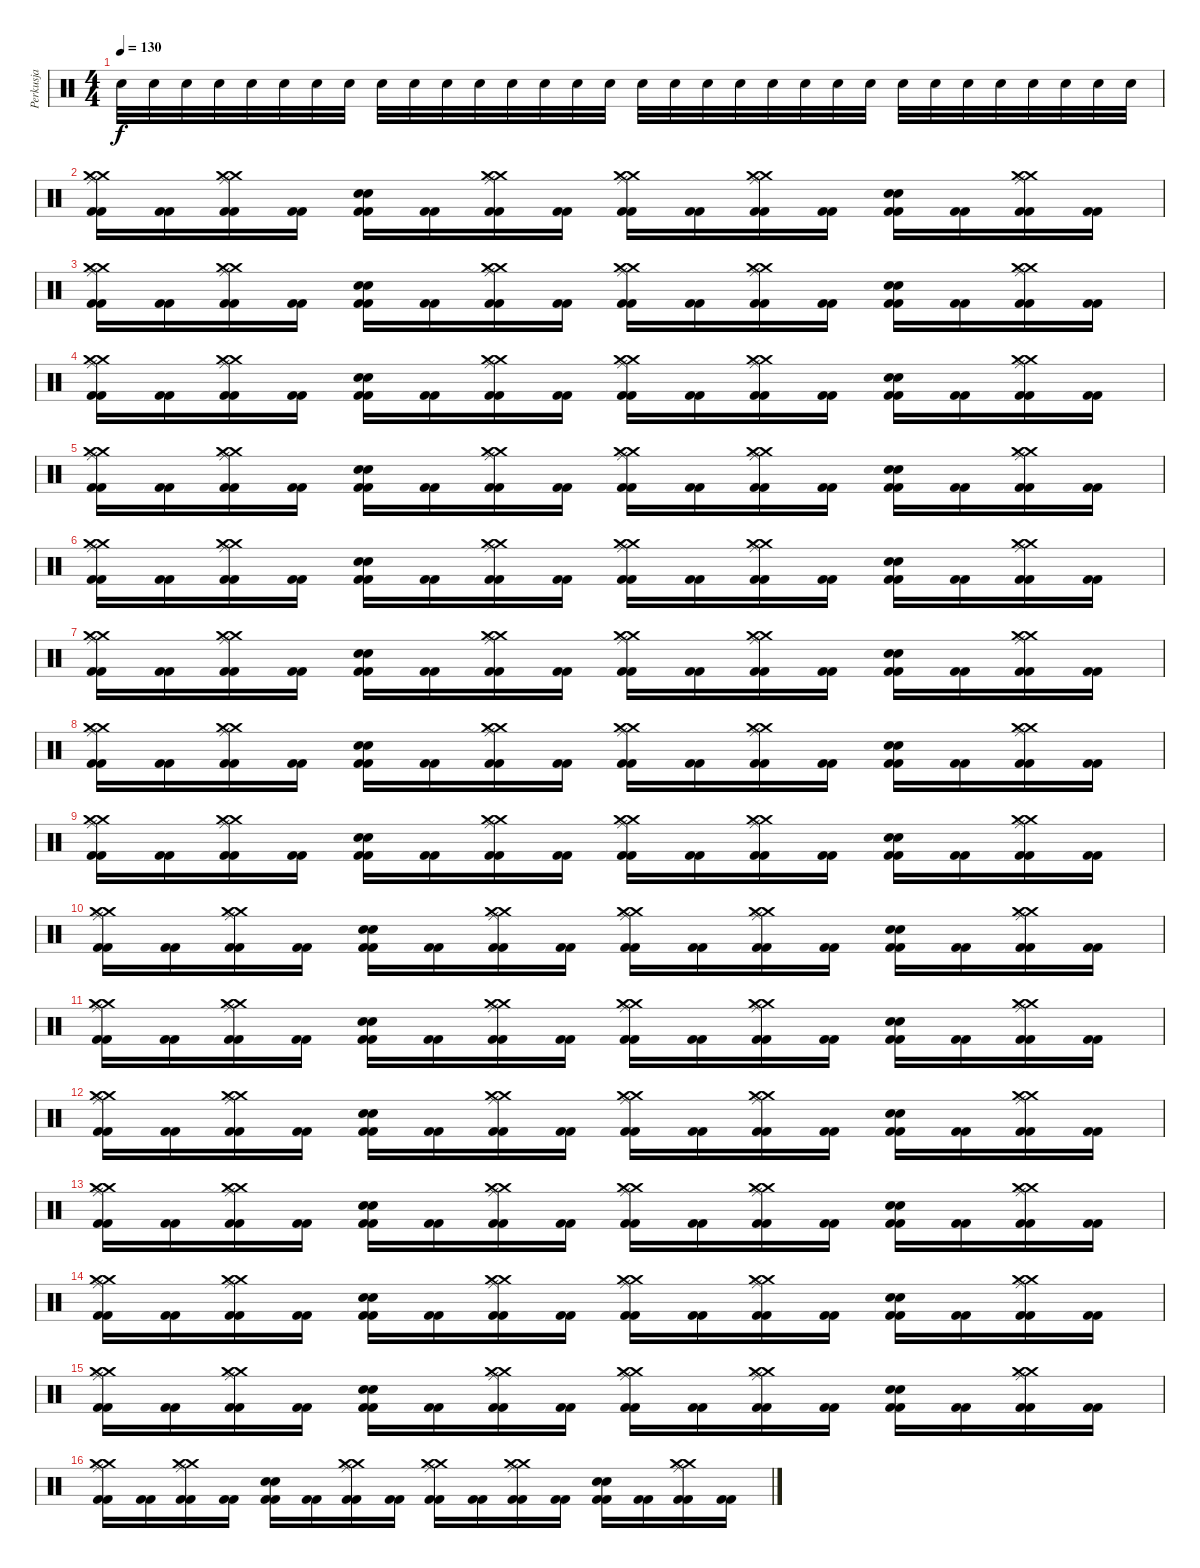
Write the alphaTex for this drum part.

\track ("Perkusja" "Perkusja") {instrument percussion}
\staff {score}
\articulation defaults
\ts (4 4)
\tempo 130
\clef neutral
\ks c "Electric Snare (hit)".32{dy f} "Electric Snare (hit)".32 "Electric Snare (hit)".32 "Electric Snare (hit)".32 "Electric Snare (hit)".32 "Electric Snare (hit)".32 "Electric Snare (hit)".32 "Electric Snare (hit)".32 "Electric Snare (hit)".32 "Electric Snare (hit)".32 "Electric Snare (hit)".32 "Electric Snare (hit)".32 "Electric Snare (hit)".32 "Electric Snare (hit)".32 "Electric Snare (hit)".32 "Electric Snare (hit)".32 "Electric Snare (hit)".32 "Electric Snare (hit)".32 "Electric Snare (hit)".32 "Electric Snare (hit)".32 "Electric Snare (hit)".32 "Electric Snare (hit)".32 "Electric Snare (hit)".32 "Electric Snare (hit)".32 "Electric Snare (hit)".32 "Electric Snare (hit)".32 "Electric Snare (hit)".32 "Electric Snare (hit)".32 "Electric Snare (hit)".32 "Electric Snare (hit)".32 "Electric Snare (hit)".32 "Electric Snare (hit)".32
|
("Ride (middle)" "Crash medium (hit)" "Crash medium (hit)" "Kick (hit) 2" "Kick (hit) 2").16 ("Kick (hit) 2" "Kick (hit) 2").16 ("Ride (middle)" "Crash medium (hit)" "Crash medium (hit)" "Kick (hit) 2" "Kick (hit) 2").16 ("Kick (hit) 2" "Kick (hit) 2").16 ("Electric Snare (hit)" "Electric Snare (hit)" "Kick (hit) 2" "Kick (hit) 2").16 ("Kick (hit) 2" "Kick (hit) 2").16 ("Ride (middle)" "Crash medium (hit)" "Crash medium (hit)" "Kick (hit) 2" "Kick (hit) 2").16 ("Kick (hit) 2" "Kick (hit) 2").16 ("Ride (middle)" "Crash medium (hit)" "Crash medium (hit)" "Kick (hit) 2" "Kick (hit) 2").16 ("Kick (hit) 2" "Kick (hit) 2").16 ("Ride (middle)" "Crash medium (hit)" "Crash medium (hit)" "Kick (hit) 2" "Kick (hit) 2").16 ("Kick (hit) 2" "Kick (hit) 2").16 ("Electric Snare (hit)" "Electric Snare (hit)" "Kick (hit) 2" "Kick (hit) 2").16 ("Kick (hit) 2" "Kick (hit) 2").16 ("Ride (middle)" "Crash medium (hit)" "Crash medium (hit)" "Kick (hit) 2" "Kick (hit) 2").16 ("Kick (hit) 2" "Kick (hit) 2").16 |
("Ride (middle)" "Crash medium (hit)" "Crash medium (hit)" "Kick (hit) 2" "Kick (hit) 2").16 ("Kick (hit) 2" "Kick (hit) 2").16 ("Ride (middle)" "Crash medium (hit)" "Crash medium (hit)" "Kick (hit) 2" "Kick (hit) 2").16 ("Kick (hit) 2" "Kick (hit) 2").16 ("Electric Snare (hit)" "Electric Snare (hit)" "Kick (hit) 2" "Kick (hit) 2").16 ("Kick (hit) 2" "Kick (hit) 2").16 ("Ride (middle)" "Crash medium (hit)" "Crash medium (hit)" "Kick (hit) 2" "Kick (hit) 2").16 ("Kick (hit) 2" "Kick (hit) 2").16 ("Ride (middle)" "Crash medium (hit)" "Crash medium (hit)" "Kick (hit) 2" "Kick (hit) 2").16 ("Kick (hit) 2" "Kick (hit) 2").16 ("Ride (middle)" "Crash medium (hit)" "Crash medium (hit)" "Kick (hit) 2" "Kick (hit) 2").16 ("Kick (hit) 2" "Kick (hit) 2").16 ("Electric Snare (hit)" "Electric Snare (hit)" "Kick (hit) 2" "Kick (hit) 2").16 ("Kick (hit) 2" "Kick (hit) 2").16 ("Ride (middle)" "Crash medium (hit)" "Crash medium (hit)" "Kick (hit) 2" "Kick (hit) 2").16 ("Kick (hit) 2" "Kick (hit) 2").16 |
("Ride (middle)" "Crash medium (hit)" "Crash medium (hit)" "Kick (hit) 2" "Kick (hit) 2").16 ("Kick (hit) 2" "Kick (hit) 2").16 ("Ride (middle)" "Crash medium (hit)" "Crash medium (hit)" "Kick (hit) 2" "Kick (hit) 2").16 ("Kick (hit) 2" "Kick (hit) 2").16 ("Electric Snare (hit)" "Electric Snare (hit)" "Kick (hit) 2" "Kick (hit) 2").16 ("Kick (hit) 2" "Kick (hit) 2").16 ("Ride (middle)" "Crash medium (hit)" "Crash medium (hit)" "Kick (hit) 2" "Kick (hit) 2").16 ("Kick (hit) 2" "Kick (hit) 2").16 ("Ride (middle)" "Crash medium (hit)" "Crash medium (hit)" "Kick (hit) 2" "Kick (hit) 2").16 ("Kick (hit) 2" "Kick (hit) 2").16 ("Ride (middle)" "Crash medium (hit)" "Crash medium (hit)" "Kick (hit) 2" "Kick (hit) 2").16 ("Kick (hit) 2" "Kick (hit) 2").16 ("Electric Snare (hit)" "Electric Snare (hit)" "Kick (hit) 2" "Kick (hit) 2").16 ("Kick (hit) 2" "Kick (hit) 2").16 ("Ride (middle)" "Crash medium (hit)" "Crash medium (hit)" "Kick (hit) 2" "Kick (hit) 2").16 ("Kick (hit) 2" "Kick (hit) 2").16 |
("Ride (middle)" "Crash medium (hit)" "Crash medium (hit)" "Kick (hit) 2" "Kick (hit) 2").16 ("Kick (hit) 2" "Kick (hit) 2").16 ("Ride (middle)" "Crash medium (hit)" "Crash medium (hit)" "Kick (hit) 2" "Kick (hit) 2").16 ("Kick (hit) 2" "Kick (hit) 2").16 ("Electric Snare (hit)" "Electric Snare (hit)" "Kick (hit) 2" "Kick (hit) 2").16 ("Kick (hit) 2" "Kick (hit) 2").16 ("Ride (middle)" "Crash medium (hit)" "Crash medium (hit)" "Kick (hit) 2" "Kick (hit) 2").16 ("Kick (hit) 2" "Kick (hit) 2").16 ("Ride (middle)" "Crash medium (hit)" "Crash medium (hit)" "Kick (hit) 2" "Kick (hit) 2").16 ("Kick (hit) 2" "Kick (hit) 2").16 ("Ride (middle)" "Crash medium (hit)" "Crash medium (hit)" "Kick (hit) 2" "Kick (hit) 2").16 ("Kick (hit) 2" "Kick (hit) 2").16 ("Electric Snare (hit)" "Electric Snare (hit)" "Kick (hit) 2" "Kick (hit) 2").16 ("Kick (hit) 2" "Kick (hit) 2").16 ("Ride (middle)" "Crash medium (hit)" "Crash medium (hit)" "Kick (hit) 2" "Kick (hit) 2").16 ("Kick (hit) 2" "Kick (hit) 2").16 |
("Ride (middle)" "Crash medium (hit)" "Crash medium (hit)" "Kick (hit) 2" "Kick (hit) 2").16 ("Kick (hit) 2" "Kick (hit) 2").16 ("Ride (middle)" "Crash medium (hit)" "Crash medium (hit)" "Kick (hit) 2" "Kick (hit) 2").16 ("Kick (hit) 2" "Kick (hit) 2").16 ("Electric Snare (hit)" "Electric Snare (hit)" "Kick (hit) 2" "Kick (hit) 2").16 ("Kick (hit) 2" "Kick (hit) 2").16 ("Ride (middle)" "Crash medium (hit)" "Crash medium (hit)" "Kick (hit) 2" "Kick (hit) 2").16 ("Kick (hit) 2" "Kick (hit) 2").16 ("Ride (middle)" "Crash medium (hit)" "Crash medium (hit)" "Kick (hit) 2" "Kick (hit) 2").16 ("Kick (hit) 2" "Kick (hit) 2").16 ("Ride (middle)" "Crash medium (hit)" "Crash medium (hit)" "Kick (hit) 2" "Kick (hit) 2").16 ("Kick (hit) 2" "Kick (hit) 2").16 ("Electric Snare (hit)" "Electric Snare (hit)" "Kick (hit) 2" "Kick (hit) 2").16 ("Kick (hit) 2" "Kick (hit) 2").16 ("Ride (middle)" "Crash medium (hit)" "Crash medium (hit)" "Kick (hit) 2" "Kick (hit) 2").16 ("Kick (hit) 2" "Kick (hit) 2").16 |
("Ride (middle)" "Crash medium (hit)" "Crash medium (hit)" "Kick (hit) 2" "Kick (hit) 2").16 ("Kick (hit) 2" "Kick (hit) 2").16 ("Ride (middle)" "Crash medium (hit)" "Crash medium (hit)" "Kick (hit) 2" "Kick (hit) 2").16 ("Kick (hit) 2" "Kick (hit) 2").16 ("Electric Snare (hit)" "Electric Snare (hit)" "Kick (hit) 2" "Kick (hit) 2").16 ("Kick (hit) 2" "Kick (hit) 2").16 ("Ride (middle)" "Crash medium (hit)" "Crash medium (hit)" "Kick (hit) 2" "Kick (hit) 2").16 ("Kick (hit) 2" "Kick (hit) 2").16 ("Ride (middle)" "Crash medium (hit)" "Crash medium (hit)" "Kick (hit) 2" "Kick (hit) 2").16 ("Kick (hit) 2" "Kick (hit) 2").16 ("Ride (middle)" "Crash medium (hit)" "Crash medium (hit)" "Kick (hit) 2" "Kick (hit) 2").16 ("Kick (hit) 2" "Kick (hit) 2").16 ("Electric Snare (hit)" "Electric Snare (hit)" "Kick (hit) 2" "Kick (hit) 2").16 ("Kick (hit) 2" "Kick (hit) 2").16 ("Ride (middle)" "Crash medium (hit)" "Crash medium (hit)" "Kick (hit) 2" "Kick (hit) 2").16 ("Kick (hit) 2" "Kick (hit) 2").16 |
("Ride (middle)" "Crash medium (hit)" "Crash medium (hit)" "Kick (hit) 2" "Kick (hit) 2").16 ("Kick (hit) 2" "Kick (hit) 2").16 ("Ride (middle)" "Crash medium (hit)" "Crash medium (hit)" "Kick (hit) 2" "Kick (hit) 2").16 ("Kick (hit) 2" "Kick (hit) 2").16 ("Electric Snare (hit)" "Electric Snare (hit)" "Kick (hit) 2" "Kick (hit) 2").16 ("Kick (hit) 2" "Kick (hit) 2").16 ("Ride (middle)" "Crash medium (hit)" "Crash medium (hit)" "Kick (hit) 2" "Kick (hit) 2").16 ("Kick (hit) 2" "Kick (hit) 2").16 ("Ride (middle)" "Crash medium (hit)" "Crash medium (hit)" "Kick (hit) 2" "Kick (hit) 2").16 ("Kick (hit) 2" "Kick (hit) 2").16 ("Ride (middle)" "Crash medium (hit)" "Crash medium (hit)" "Kick (hit) 2" "Kick (hit) 2").16 ("Kick (hit) 2" "Kick (hit) 2").16 ("Electric Snare (hit)" "Electric Snare (hit)" "Kick (hit) 2" "Kick (hit) 2").16 ("Kick (hit) 2" "Kick (hit) 2").16 ("Ride (middle)" "Crash medium (hit)" "Crash medium (hit)" "Kick (hit) 2" "Kick (hit) 2").16 ("Kick (hit) 2" "Kick (hit) 2").16 |
("Ride (middle)" "Crash medium (hit)" "Crash medium (hit)" "Kick (hit) 2" "Kick (hit) 2").16 ("Kick (hit) 2" "Kick (hit) 2").16 ("Ride (middle)" "Crash medium (hit)" "Crash medium (hit)" "Kick (hit) 2" "Kick (hit) 2").16 ("Kick (hit) 2" "Kick (hit) 2").16 ("Electric Snare (hit)" "Electric Snare (hit)" "Kick (hit) 2" "Kick (hit) 2").16 ("Kick (hit) 2" "Kick (hit) 2").16 ("Ride (middle)" "Crash medium (hit)" "Crash medium (hit)" "Kick (hit) 2" "Kick (hit) 2").16 ("Kick (hit) 2" "Kick (hit) 2").16 ("Ride (middle)" "Crash medium (hit)" "Crash medium (hit)" "Kick (hit) 2" "Kick (hit) 2").16 ("Kick (hit) 2" "Kick (hit) 2").16 ("Ride (middle)" "Crash medium (hit)" "Crash medium (hit)" "Kick (hit) 2" "Kick (hit) 2").16 ("Kick (hit) 2" "Kick (hit) 2").16 ("Electric Snare (hit)" "Electric Snare (hit)" "Kick (hit) 2" "Kick (hit) 2").16 ("Kick (hit) 2" "Kick (hit) 2").16 ("Ride (middle)" "Crash medium (hit)" "Crash medium (hit)" "Kick (hit) 2" "Kick (hit) 2").16 ("Kick (hit) 2" "Kick (hit) 2").16 |
("Ride (middle)" "Crash medium (hit)" "Crash medium (hit)" "Kick (hit) 2" "Kick (hit) 2").16 ("Kick (hit) 2" "Kick (hit) 2").16 ("Ride (middle)" "Crash medium (hit)" "Crash medium (hit)" "Kick (hit) 2" "Kick (hit) 2").16 ("Kick (hit) 2" "Kick (hit) 2").16 ("Electric Snare (hit)" "Electric Snare (hit)" "Kick (hit) 2" "Kick (hit) 2").16 ("Kick (hit) 2" "Kick (hit) 2").16 ("Ride (middle)" "Crash medium (hit)" "Crash medium (hit)" "Kick (hit) 2" "Kick (hit) 2").16 ("Kick (hit) 2" "Kick (hit) 2").16 ("Ride (middle)" "Crash medium (hit)" "Crash medium (hit)" "Kick (hit) 2" "Kick (hit) 2").16 ("Kick (hit) 2" "Kick (hit) 2").16 ("Ride (middle)" "Crash medium (hit)" "Crash medium (hit)" "Kick (hit) 2" "Kick (hit) 2").16 ("Kick (hit) 2" "Kick (hit) 2").16 ("Electric Snare (hit)" "Electric Snare (hit)" "Kick (hit) 2" "Kick (hit) 2").16 ("Kick (hit) 2" "Kick (hit) 2").16 ("Ride (middle)" "Crash medium (hit)" "Crash medium (hit)" "Kick (hit) 2" "Kick (hit) 2").16 ("Kick (hit) 2" "Kick (hit) 2").16 |
("Ride (middle)" "Crash medium (hit)" "Crash medium (hit)" "Kick (hit) 2" "Kick (hit) 2").16 ("Kick (hit) 2" "Kick (hit) 2").16 ("Ride (middle)" "Crash medium (hit)" "Crash medium (hit)" "Kick (hit) 2" "Kick (hit) 2").16 ("Kick (hit) 2" "Kick (hit) 2").16 ("Electric Snare (hit)" "Electric Snare (hit)" "Kick (hit) 2" "Kick (hit) 2").16 ("Kick (hit) 2" "Kick (hit) 2").16 ("Ride (middle)" "Crash medium (hit)" "Crash medium (hit)" "Kick (hit) 2" "Kick (hit) 2").16 ("Kick (hit) 2" "Kick (hit) 2").16 ("Ride (middle)" "Crash medium (hit)" "Crash medium (hit)" "Kick (hit) 2" "Kick (hit) 2").16 ("Kick (hit) 2" "Kick (hit) 2").16 ("Ride (middle)" "Crash medium (hit)" "Crash medium (hit)" "Kick (hit) 2" "Kick (hit) 2").16 ("Kick (hit) 2" "Kick (hit) 2").16 ("Electric Snare (hit)" "Electric Snare (hit)" "Kick (hit) 2" "Kick (hit) 2").16 ("Kick (hit) 2" "Kick (hit) 2").16 ("Ride (middle)" "Crash medium (hit)" "Crash medium (hit)" "Kick (hit) 2" "Kick (hit) 2").16 ("Kick (hit) 2" "Kick (hit) 2").16 |
("Ride (middle)" "Crash medium (hit)" "Crash medium (hit)" "Kick (hit) 2" "Kick (hit) 2").16 ("Kick (hit) 2" "Kick (hit) 2").16 ("Ride (middle)" "Crash medium (hit)" "Crash medium (hit)" "Kick (hit) 2" "Kick (hit) 2").16 ("Kick (hit) 2" "Kick (hit) 2").16 ("Electric Snare (hit)" "Electric Snare (hit)" "Kick (hit) 2" "Kick (hit) 2").16 ("Kick (hit) 2" "Kick (hit) 2").16 ("Ride (middle)" "Crash medium (hit)" "Crash medium (hit)" "Kick (hit) 2" "Kick (hit) 2").16 ("Kick (hit) 2" "Kick (hit) 2").16 ("Ride (middle)" "Crash medium (hit)" "Crash medium (hit)" "Kick (hit) 2" "Kick (hit) 2").16 ("Kick (hit) 2" "Kick (hit) 2").16 ("Ride (middle)" "Crash medium (hit)" "Crash medium (hit)" "Kick (hit) 2" "Kick (hit) 2").16 ("Kick (hit) 2" "Kick (hit) 2").16 ("Electric Snare (hit)" "Electric Snare (hit)" "Kick (hit) 2" "Kick (hit) 2").16 ("Kick (hit) 2" "Kick (hit) 2").16 ("Ride (middle)" "Crash medium (hit)" "Crash medium (hit)" "Kick (hit) 2" "Kick (hit) 2").16 ("Kick (hit) 2" "Kick (hit) 2").16 |
("Ride (middle)" "Crash medium (hit)" "Crash medium (hit)" "Kick (hit) 2" "Kick (hit) 2").16 ("Kick (hit) 2" "Kick (hit) 2").16 ("Ride (middle)" "Crash medium (hit)" "Crash medium (hit)" "Kick (hit) 2" "Kick (hit) 2").16 ("Kick (hit) 2" "Kick (hit) 2").16 ("Electric Snare (hit)" "Electric Snare (hit)" "Kick (hit) 2" "Kick (hit) 2").16 ("Kick (hit) 2" "Kick (hit) 2").16 ("Ride (middle)" "Crash medium (hit)" "Crash medium (hit)" "Kick (hit) 2" "Kick (hit) 2").16 ("Kick (hit) 2" "Kick (hit) 2").16 ("Ride (middle)" "Crash medium (hit)" "Crash medium (hit)" "Kick (hit) 2" "Kick (hit) 2").16 ("Kick (hit) 2" "Kick (hit) 2").16 ("Ride (middle)" "Crash medium (hit)" "Crash medium (hit)" "Kick (hit) 2" "Kick (hit) 2").16 ("Kick (hit) 2" "Kick (hit) 2").16 ("Electric Snare (hit)" "Electric Snare (hit)" "Kick (hit) 2" "Kick (hit) 2").16 ("Kick (hit) 2" "Kick (hit) 2").16 ("Ride (middle)" "Crash medium (hit)" "Crash medium (hit)" "Kick (hit) 2" "Kick (hit) 2").16 ("Kick (hit) 2" "Kick (hit) 2").16 |
("Ride (middle)" "Crash medium (hit)" "Crash medium (hit)" "Kick (hit) 2" "Kick (hit) 2").16 ("Kick (hit) 2" "Kick (hit) 2").16 ("Ride (middle)" "Crash medium (hit)" "Crash medium (hit)" "Kick (hit) 2" "Kick (hit) 2").16 ("Kick (hit) 2" "Kick (hit) 2").16 ("Electric Snare (hit)" "Electric Snare (hit)" "Kick (hit) 2" "Kick (hit) 2").16 ("Kick (hit) 2" "Kick (hit) 2").16 ("Ride (middle)" "Crash medium (hit)" "Crash medium (hit)" "Kick (hit) 2" "Kick (hit) 2").16 ("Kick (hit) 2" "Kick (hit) 2").16 ("Ride (middle)" "Crash medium (hit)" "Crash medium (hit)" "Kick (hit) 2" "Kick (hit) 2").16 ("Kick (hit) 2" "Kick (hit) 2").16 ("Ride (middle)" "Crash medium (hit)" "Crash medium (hit)" "Kick (hit) 2" "Kick (hit) 2").16 ("Kick (hit) 2" "Kick (hit) 2").16 ("Electric Snare (hit)" "Electric Snare (hit)" "Kick (hit) 2" "Kick (hit) 2").16 ("Kick (hit) 2" "Kick (hit) 2").16 ("Ride (middle)" "Crash medium (hit)" "Crash medium (hit)" "Kick (hit) 2" "Kick (hit) 2").16 ("Kick (hit) 2" "Kick (hit) 2").16 |
("Ride (middle)" "Crash medium (hit)" "Crash medium (hit)" "Kick (hit) 2" "Kick (hit) 2").16 ("Kick (hit) 2" "Kick (hit) 2").16 ("Ride (middle)" "Crash medium (hit)" "Crash medium (hit)" "Kick (hit) 2" "Kick (hit) 2").16 ("Kick (hit) 2" "Kick (hit) 2").16 ("Electric Snare (hit)" "Electric Snare (hit)" "Kick (hit) 2" "Kick (hit) 2").16 ("Kick (hit) 2" "Kick (hit) 2").16 ("Ride (middle)" "Crash medium (hit)" "Crash medium (hit)" "Kick (hit) 2" "Kick (hit) 2").16 ("Kick (hit) 2" "Kick (hit) 2").16 ("Ride (middle)" "Crash medium (hit)" "Crash medium (hit)" "Kick (hit) 2" "Kick (hit) 2").16 ("Kick (hit) 2" "Kick (hit) 2").16 ("Ride (middle)" "Crash medium (hit)" "Crash medium (hit)" "Kick (hit) 2" "Kick (hit) 2").16 ("Kick (hit) 2" "Kick (hit) 2").16 ("Electric Snare (hit)" "Electric Snare (hit)" "Kick (hit) 2" "Kick (hit) 2").16 ("Kick (hit) 2" "Kick (hit) 2").16 ("Ride (middle)" "Crash medium (hit)" "Crash medium (hit)" "Kick (hit) 2" "Kick (hit) 2").16 ("Kick (hit) 2" "Kick (hit) 2").16 |
("Ride (middle)" "Crash medium (hit)" "Crash medium (hit)" "Kick (hit) 2" "Kick (hit) 2").16 ("Kick (hit) 2" "Kick (hit) 2").16 ("Ride (middle)" "Crash medium (hit)" "Crash medium (hit)" "Kick (hit) 2" "Kick (hit) 2").16 ("Kick (hit) 2" "Kick (hit) 2").16 ("Electric Snare (hit)" "Electric Snare (hit)" "Kick (hit) 2" "Kick (hit) 2").16 ("Kick (hit) 2" "Kick (hit) 2").16 ("Ride (middle)" "Crash medium (hit)" "Crash medium (hit)" "Kick (hit) 2" "Kick (hit) 2").16 ("Kick (hit) 2" "Kick (hit) 2").16 ("Ride (middle)" "Crash medium (hit)" "Crash medium (hit)" "Kick (hit) 2" "Kick (hit) 2").16 ("Kick (hit) 2" "Kick (hit) 2").16 ("Ride (middle)" "Crash medium (hit)" "Crash medium (hit)" "Kick (hit) 2" "Kick (hit) 2").16 ("Kick (hit) 2" "Kick (hit) 2").16 ("Electric Snare (hit)" "Electric Snare (hit)" "Kick (hit) 2" "Kick (hit) 2").16 ("Kick (hit) 2" "Kick (hit) 2").16 ("Ride (middle)" "Crash medium (hit)" "Crash medium (hit)" "Kick (hit) 2" "Kick (hit) 2").16 ("Kick (hit) 2" "Kick (hit) 2").16
